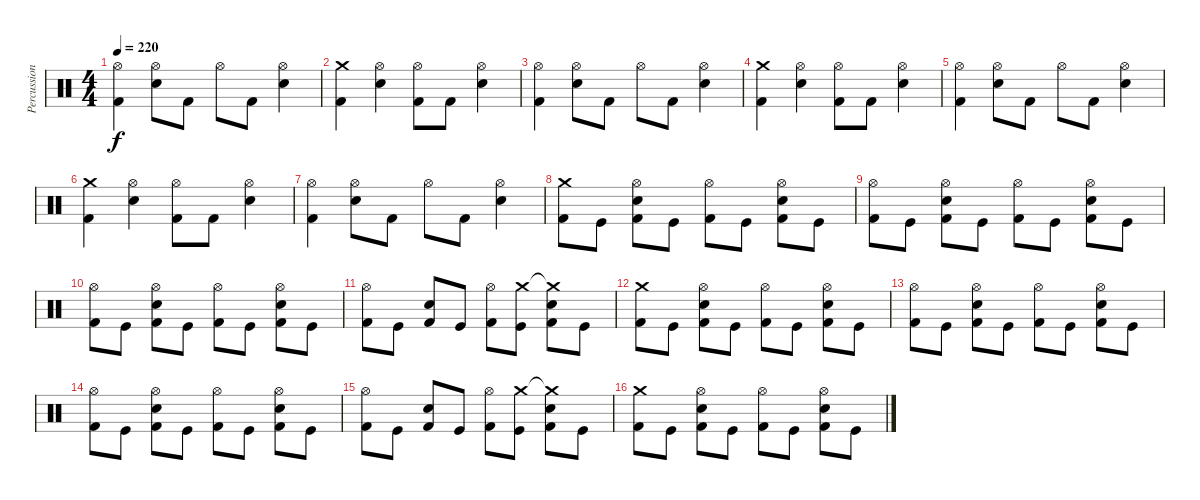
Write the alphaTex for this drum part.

\track ("Percussions" "Percussion") {instrument percussion}
\staff {score}
\articulation defaults
\ts (4 4)
\tempo 220
\clef neutral
\ks c
("Hi-Hat (open)" "Kick (hit) 2").4{dy f} ("Hi-Hat (open)" "Electric Snare (hit)").8 "Kick (hit) 2".8 "Hi-Hat (open)".8 "Kick (hit) 2".8 ("Hi-Hat (open)" "Electric Snare (hit)").4 |
("Crash medium (hit)" "Kick (hit) 2").4 ("Hi-Hat (open)" "Electric Snare (hit)").4 ("Hi-Hat (open)" "Kick (hit) 2").8 "Kick (hit) 2".8 ("Hi-Hat (open)" "Electric Snare (hit)").4 |
("Hi-Hat (open)" "Kick (hit) 2").4 ("Hi-Hat (open)" "Electric Snare (hit)").8 "Kick (hit) 2".8 "Hi-Hat (open)".8 "Kick (hit) 2".8 ("Hi-Hat (open)" "Electric Snare (hit)").4 |
("Crash medium (hit)" "Kick (hit) 2").4 ("Hi-Hat (open)" "Electric Snare (hit)").4 ("Hi-Hat (open)" "Kick (hit) 2").8 "Kick (hit) 2".8 ("Hi-Hat (open)" "Electric Snare (hit)").4 |
("Hi-Hat (open)" "Kick (hit) 2").4 ("Hi-Hat (open)" "Electric Snare (hit)").8 "Kick (hit) 2".8 "Hi-Hat (open)".8 "Kick (hit) 2".8 ("Hi-Hat (open)" "Electric Snare (hit)").4 |
("Crash medium (hit)" "Kick (hit) 2").4 ("Hi-Hat (open)" "Electric Snare (hit)").4 ("Hi-Hat (open)" "Kick (hit) 2").8 "Kick (hit) 2".8 ("Hi-Hat (open)" "Electric Snare (hit)").4 |
("Hi-Hat (open)" "Kick (hit) 2").4 ("Hi-Hat (open)" "Electric Snare (hit)").8 "Kick (hit) 2".8 "Hi-Hat (open)".8 "Kick (hit) 2".8 ("Hi-Hat (open)" "Electric Snare (hit)").4 |
("Crash medium (hit)" "Kick (hit) 2").8 "Kick (hit)".8 ("Hi-Hat (open)" "Electric Snare (hit)" "Kick (hit) 2").8 "Kick (hit)".8 ("Hi-Hat (open)" "Kick (hit) 2").8 "Kick (hit)".8 ("Hi-Hat (open)" "Electric Snare (hit)" "Kick (hit) 2").8 "Kick (hit)".8 |
("Hi-Hat (open)" "Kick (hit) 2").8 "Kick (hit)".8 ("Hi-Hat (open)" "Electric Snare (hit)" "Kick (hit) 2").8 "Kick (hit)".8 ("Hi-Hat (open)" "Kick (hit) 2").8 "Kick (hit)".8 ("Hi-Hat (open)" "Electric Snare (hit)" "Kick (hit) 2").8 "Kick (hit)".8 |
("Hi-Hat (open)" "Kick (hit) 2").8 "Kick (hit)".8 ("Hi-Hat (open)" "Electric Snare (hit)" "Kick (hit) 2").8 "Kick (hit)".8 ("Hi-Hat (open)" "Kick (hit) 2").8 "Kick (hit)".8 ("Hi-Hat (open)" "Electric Snare (hit)" "Kick (hit) 2").8 "Kick (hit)".8 |
("Hi-Hat (open)" "Kick (hit) 2").8 "Kick (hit)".8 ("Electric Snare (hit)" "Kick (hit) 2").8 "Kick (hit)".8 ("Hi-Hat (open)" "Kick (hit) 2").8 ("Crash medium (hit)" "Kick (hit)").8 ("Crash medium (hit)"{t} "Electric Snare (hit)" "Kick (hit) 2").8 "Kick (hit)".8 |
("Crash medium (hit)" "Kick (hit) 2").8 "Kick (hit)".8 ("Hi-Hat (open)" "Electric Snare (hit)" "Kick (hit) 2").8 "Kick (hit)".8 ("Hi-Hat (open)" "Kick (hit) 2").8 "Kick (hit)".8 ("Hi-Hat (open)" "Electric Snare (hit)" "Kick (hit) 2").8 "Kick (hit)".8 |
("Hi-Hat (open)" "Kick (hit) 2").8 "Kick (hit)".8 ("Hi-Hat (open)" "Electric Snare (hit)" "Kick (hit) 2").8 "Kick (hit)".8 ("Hi-Hat (open)" "Kick (hit) 2").8 "Kick (hit)".8 ("Hi-Hat (open)" "Electric Snare (hit)" "Kick (hit) 2").8 "Kick (hit)".8 |
("Hi-Hat (open)" "Kick (hit) 2").8 "Kick (hit)".8 ("Hi-Hat (open)" "Electric Snare (hit)" "Kick (hit) 2").8 "Kick (hit)".8 ("Hi-Hat (open)" "Kick (hit) 2").8 "Kick (hit)".8 ("Hi-Hat (open)" "Electric Snare (hit)" "Kick (hit) 2").8 "Kick (hit)".8 |
("Hi-Hat (open)" "Kick (hit) 2").8 "Kick (hit)".8 ("Electric Snare (hit)" "Kick (hit) 2").8 "Kick (hit)".8 ("Hi-Hat (open)" "Kick (hit) 2").8 ("Crash medium (hit)" "Kick (hit)").8 ("Crash medium (hit)"{t} "Electric Snare (hit)" "Kick (hit) 2").8 "Kick (hit)".8 |
("Crash medium (hit)" "Kick (hit) 2").8 "Kick (hit)".8 ("Hi-Hat (open)" "Electric Snare (hit)" "Kick (hit) 2").8 "Kick (hit)".8 ("Hi-Hat (open)" "Kick (hit) 2").8 "Kick (hit)".8 ("Hi-Hat (open)" "Electric Snare (hit)" "Kick (hit) 2").8 "Kick (hit)".8
